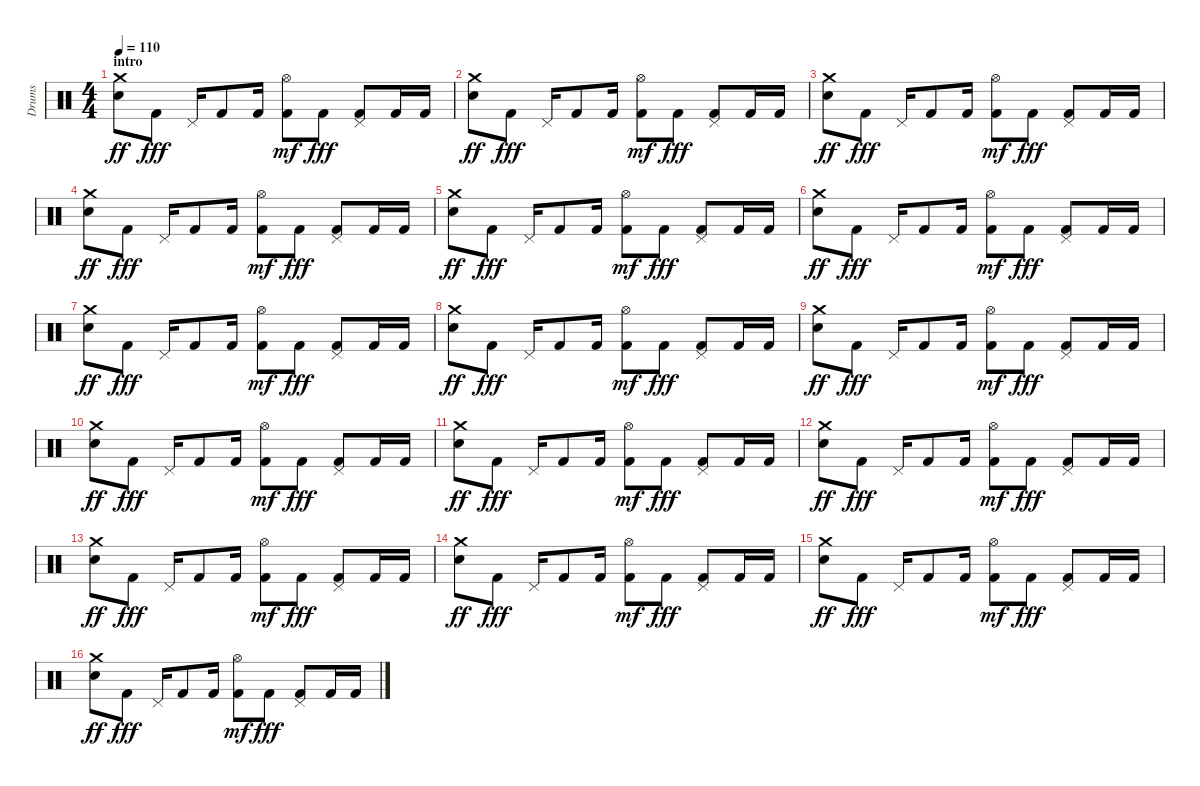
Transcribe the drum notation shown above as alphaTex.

\track ("Drums" "Drums") {instrument percussion}
\staff {score}
\articulation defaults
\ts (4 4)
\section ("" "intro")
\tempo 110
\clef neutral
\ks c
("Electric Snare (hit)" "Crash medium (hit)").8{dy ff} "Kick (hit) 2".8{dy fff} "Pedal Hi-Hat (hit)".16 "Kick (hit) 2".8 "Kick (hit) 2".16 ("Kick (hit) 2" "Hi-Hat (open)").8{dy mf} "Kick (hit) 2".8{dy fff} ("Kick (hit) 2" "Pedal Hi-Hat (hit)").8 "Kick (hit) 2".16 "Kick (hit) 2".16 |
("Electric Snare (hit)" "Crash medium (hit)").8{dy ff} "Kick (hit) 2".8{dy fff} "Pedal Hi-Hat (hit)".16 "Kick (hit) 2".8 "Kick (hit) 2".16 ("Kick (hit) 2" "Hi-Hat (open)").8{dy mf} "Kick (hit) 2".8{dy fff} ("Kick (hit) 2" "Pedal Hi-Hat (hit)").8 "Kick (hit) 2".16 "Kick (hit) 2".16 |
("Electric Snare (hit)" "Crash medium (hit)").8{dy ff} "Kick (hit) 2".8{dy fff} "Pedal Hi-Hat (hit)".16 "Kick (hit) 2".8 "Kick (hit) 2".16 ("Kick (hit) 2" "Hi-Hat (open)").8{dy mf} "Kick (hit) 2".8{dy fff} ("Kick (hit) 2" "Pedal Hi-Hat (hit)").8 "Kick (hit) 2".16 "Kick (hit) 2".16 |
("Electric Snare (hit)" "Crash medium (hit)").8{dy ff} "Kick (hit) 2".8{dy fff} "Pedal Hi-Hat (hit)".16 "Kick (hit) 2".8 "Kick (hit) 2".16 ("Kick (hit) 2" "Hi-Hat (open)").8{dy mf} "Kick (hit) 2".8{dy fff} ("Kick (hit) 2" "Pedal Hi-Hat (hit)").8 "Kick (hit) 2".16 "Kick (hit) 2".16 |
("Electric Snare (hit)" "Crash medium (hit)").8{dy ff} "Kick (hit) 2".8{dy fff} "Pedal Hi-Hat (hit)".16 "Kick (hit) 2".8 "Kick (hit) 2".16 ("Kick (hit) 2" "Hi-Hat (open)").8{dy mf} "Kick (hit) 2".8{dy fff} ("Kick (hit) 2" "Pedal Hi-Hat (hit)").8 "Kick (hit) 2".16 "Kick (hit) 2".16 |
("Electric Snare (hit)" "Crash medium (hit)").8{dy ff} "Kick (hit) 2".8{dy fff} "Pedal Hi-Hat (hit)".16 "Kick (hit) 2".8 "Kick (hit) 2".16 ("Kick (hit) 2" "Hi-Hat (open)").8{dy mf} "Kick (hit) 2".8{dy fff} ("Kick (hit) 2" "Pedal Hi-Hat (hit)").8 "Kick (hit) 2".16 "Kick (hit) 2".16 |
("Electric Snare (hit)" "Crash medium (hit)").8{dy ff} "Kick (hit) 2".8{dy fff} "Pedal Hi-Hat (hit)".16 "Kick (hit) 2".8 "Kick (hit) 2".16 ("Kick (hit) 2" "Hi-Hat (open)").8{dy mf} "Kick (hit) 2".8{dy fff} ("Kick (hit) 2" "Pedal Hi-Hat (hit)").8 "Kick (hit) 2".16 "Kick (hit) 2".16 |
("Electric Snare (hit)" "Crash medium (hit)").8{dy ff} "Kick (hit) 2".8{dy fff} "Pedal Hi-Hat (hit)".16 "Kick (hit) 2".8 "Kick (hit) 2".16 ("Kick (hit) 2" "Hi-Hat (open)").8{dy mf} "Kick (hit) 2".8{dy fff} ("Kick (hit) 2" "Pedal Hi-Hat (hit)").8 "Kick (hit) 2".16 "Kick (hit) 2".16 |
("Electric Snare (hit)" "Crash medium (hit)").8{dy ff} "Kick (hit) 2".8{dy fff} "Pedal Hi-Hat (hit)".16 "Kick (hit) 2".8 "Kick (hit) 2".16 ("Kick (hit) 2" "Hi-Hat (open)").8{dy mf} "Kick (hit) 2".8{dy fff} ("Kick (hit) 2" "Pedal Hi-Hat (hit)").8 "Kick (hit) 2".16 "Kick (hit) 2".16 |
("Electric Snare (hit)" "Crash medium (hit)").8{dy ff} "Kick (hit) 2".8{dy fff} "Pedal Hi-Hat (hit)".16 "Kick (hit) 2".8 "Kick (hit) 2".16 ("Kick (hit) 2" "Hi-Hat (open)").8{dy mf} "Kick (hit) 2".8{dy fff} ("Kick (hit) 2" "Pedal Hi-Hat (hit)").8 "Kick (hit) 2".16 "Kick (hit) 2".16 |
("Electric Snare (hit)" "Crash medium (hit)").8{dy ff} "Kick (hit) 2".8{dy fff} "Pedal Hi-Hat (hit)".16 "Kick (hit) 2".8 "Kick (hit) 2".16 ("Kick (hit) 2" "Hi-Hat (open)").8{dy mf} "Kick (hit) 2".8{dy fff} ("Kick (hit) 2" "Pedal Hi-Hat (hit)").8 "Kick (hit) 2".16 "Kick (hit) 2".16 |
("Electric Snare (hit)" "Crash medium (hit)").8{dy ff} "Kick (hit) 2".8{dy fff} "Pedal Hi-Hat (hit)".16 "Kick (hit) 2".8 "Kick (hit) 2".16 ("Kick (hit) 2" "Hi-Hat (open)").8{dy mf} "Kick (hit) 2".8{dy fff} ("Kick (hit) 2" "Pedal Hi-Hat (hit)").8 "Kick (hit) 2".16 "Kick (hit) 2".16 |
("Electric Snare (hit)" "Crash medium (hit)").8{dy ff} "Kick (hit) 2".8{dy fff} "Pedal Hi-Hat (hit)".16 "Kick (hit) 2".8 "Kick (hit) 2".16 ("Kick (hit) 2" "Hi-Hat (open)").8{dy mf} "Kick (hit) 2".8{dy fff} ("Kick (hit) 2" "Pedal Hi-Hat (hit)").8 "Kick (hit) 2".16 "Kick (hit) 2".16 |
("Electric Snare (hit)" "Crash medium (hit)").8{dy ff} "Kick (hit) 2".8{dy fff} "Pedal Hi-Hat (hit)".16 "Kick (hit) 2".8 "Kick (hit) 2".16 ("Kick (hit) 2" "Hi-Hat (open)").8{dy mf} "Kick (hit) 2".8{dy fff} ("Kick (hit) 2" "Pedal Hi-Hat (hit)").8 "Kick (hit) 2".16 "Kick (hit) 2".16 |
("Electric Snare (hit)" "Crash medium (hit)").8{dy ff} "Kick (hit) 2".8{dy fff} "Pedal Hi-Hat (hit)".16 "Kick (hit) 2".8 "Kick (hit) 2".16 ("Kick (hit) 2" "Hi-Hat (open)").8{dy mf} "Kick (hit) 2".8{dy fff} ("Kick (hit) 2" "Pedal Hi-Hat (hit)").8 "Kick (hit) 2".16 "Kick (hit) 2".16 |
("Electric Snare (hit)" "Crash medium (hit)").8{dy ff} "Kick (hit) 2".8{dy fff} "Pedal Hi-Hat (hit)".16 "Kick (hit) 2".8 "Kick (hit) 2".16 ("Kick (hit) 2" "Hi-Hat (open)").8{dy mf} "Kick (hit) 2".8{dy fff} ("Kick (hit) 2" "Pedal Hi-Hat (hit)").8 "Kick (hit) 2".16 "Kick (hit) 2".16
